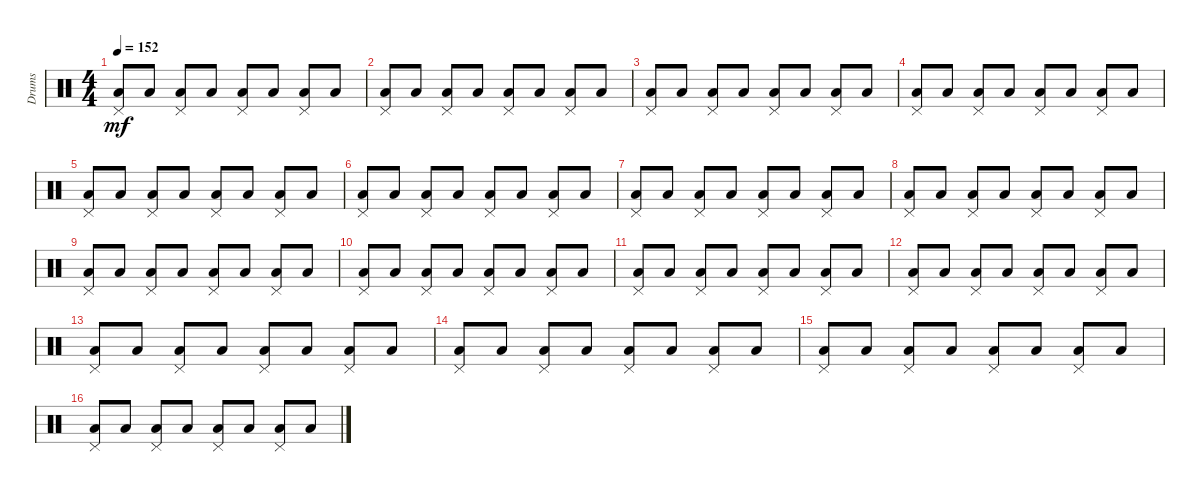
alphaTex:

\track ("Drums" "Drums") {instrument percussion}
\staff {score}
\articulation defaults
\ts (4 4)
\tempo 152
\clef neutral
\ks c
("Pedal Hi-Hat (hit)" "Low Floor Tom (hit)").8{dy mf} "Low Floor Tom (hit)".8 ("Pedal Hi-Hat (hit)" "Low Floor Tom (hit)").8 "Low Floor Tom (hit)".8 ("Pedal Hi-Hat (hit)" "Low Floor Tom (hit)").8 "Low Floor Tom (hit)".8 ("Pedal Hi-Hat (hit)" "Low Floor Tom (hit)").8 "Low Floor Tom (hit)".8 |
("Pedal Hi-Hat (hit)" "Low Floor Tom (hit)").8 "Low Floor Tom (hit)".8 ("Pedal Hi-Hat (hit)" "Low Floor Tom (hit)").8 "Low Floor Tom (hit)".8 ("Pedal Hi-Hat (hit)" "Low Floor Tom (hit)").8 "Low Floor Tom (hit)".8 ("Pedal Hi-Hat (hit)" "Low Floor Tom (hit)").8 "Low Floor Tom (hit)".8 |
("Low Floor Tom (hit)" "Pedal Hi-Hat (hit)").8 "Low Floor Tom (hit)".8 ("Low Floor Tom (hit)" "Pedal Hi-Hat (hit)").8 "Low Floor Tom (hit)".8 ("Low Floor Tom (hit)" "Pedal Hi-Hat (hit)").8 "Low Floor Tom (hit)".8 ("Low Floor Tom (hit)" "Pedal Hi-Hat (hit)").8 "Low Floor Tom (hit)".8 |
("Low Floor Tom (hit)" "Pedal Hi-Hat (hit)").8 "Low Floor Tom (hit)".8 ("Low Floor Tom (hit)" "Pedal Hi-Hat (hit)").8 "Low Floor Tom (hit)".8 ("Low Floor Tom (hit)" "Pedal Hi-Hat (hit)").8 "Low Floor Tom (hit)".8 ("Low Floor Tom (hit)" "Pedal Hi-Hat (hit)").8 "Low Floor Tom (hit)".8 |
("Low Floor Tom (hit)" "Pedal Hi-Hat (hit)").8 "Low Floor Tom (hit)".8 ("Low Floor Tom (hit)" "Pedal Hi-Hat (hit)").8 "Low Floor Tom (hit)".8 ("Low Floor Tom (hit)" "Pedal Hi-Hat (hit)").8 "Low Floor Tom (hit)".8 ("Low Floor Tom (hit)" "Pedal Hi-Hat (hit)").8 "Low Floor Tom (hit)".8 |
("Low Floor Tom (hit)" "Pedal Hi-Hat (hit)").8 "Low Floor Tom (hit)".8 ("Low Floor Tom (hit)" "Pedal Hi-Hat (hit)").8 "Low Floor Tom (hit)".8 ("Low Floor Tom (hit)" "Pedal Hi-Hat (hit)").8 "Low Floor Tom (hit)".8 ("Low Floor Tom (hit)" "Pedal Hi-Hat (hit)").8 "Low Floor Tom (hit)".8 |
("Pedal Hi-Hat (hit)" "Low Floor Tom (hit)").8 "Low Floor Tom (hit)".8 ("Pedal Hi-Hat (hit)" "Low Floor Tom (hit)").8 "Low Floor Tom (hit)".8 ("Pedal Hi-Hat (hit)" "Low Floor Tom (hit)").8 "Low Floor Tom (hit)".8 ("Pedal Hi-Hat (hit)" "Low Floor Tom (hit)").8 "Low Floor Tom (hit)".8 |
("Pedal Hi-Hat (hit)" "Low Floor Tom (hit)").8 "Low Floor Tom (hit)".8 ("Pedal Hi-Hat (hit)" "Low Floor Tom (hit)").8 "Low Floor Tom (hit)".8 ("Pedal Hi-Hat (hit)" "Low Floor Tom (hit)").8 "Low Floor Tom (hit)".8 ("Pedal Hi-Hat (hit)" "Low Floor Tom (hit)").8 "Low Floor Tom (hit)".8 |
("Low Floor Tom (hit)" "Pedal Hi-Hat (hit)").8 "Low Floor Tom (hit)".8 ("Low Floor Tom (hit)" "Pedal Hi-Hat (hit)").8 "Low Floor Tom (hit)".8 ("Low Floor Tom (hit)" "Pedal Hi-Hat (hit)").8 "Low Floor Tom (hit)".8 ("Low Floor Tom (hit)" "Pedal Hi-Hat (hit)").8 "Low Floor Tom (hit)".8 |
("Low Floor Tom (hit)" "Pedal Hi-Hat (hit)").8 "Low Floor Tom (hit)".8 ("Low Floor Tom (hit)" "Pedal Hi-Hat (hit)").8 "Low Floor Tom (hit)".8 ("Low Floor Tom (hit)" "Pedal Hi-Hat (hit)").8 "Low Floor Tom (hit)".8 ("Low Floor Tom (hit)" "Pedal Hi-Hat (hit)").8 "Low Floor Tom (hit)".8 |
("Pedal Hi-Hat (hit)" "Low Floor Tom (hit)").8 "Low Floor Tom (hit)".8 ("Pedal Hi-Hat (hit)" "Low Floor Tom (hit)").8 "Low Floor Tom (hit)".8 ("Pedal Hi-Hat (hit)" "Low Floor Tom (hit)").8 "Low Floor Tom (hit)".8 ("Pedal Hi-Hat (hit)" "Low Floor Tom (hit)").8 "Low Floor Tom (hit)".8 |
("Pedal Hi-Hat (hit)" "Low Floor Tom (hit)").8 "Low Floor Tom (hit)".8 ("Pedal Hi-Hat (hit)" "Low Floor Tom (hit)").8 "Low Floor Tom (hit)".8 ("Pedal Hi-Hat (hit)" "Low Floor Tom (hit)").8 "Low Floor Tom (hit)".8 ("Pedal Hi-Hat (hit)" "Low Floor Tom (hit)").8 "Low Floor Tom (hit)".8 |
("Pedal Hi-Hat (hit)" "Low Floor Tom (hit)").8 "Low Floor Tom (hit)".8 ("Pedal Hi-Hat (hit)" "Low Floor Tom (hit)").8 "Low Floor Tom (hit)".8 ("Pedal Hi-Hat (hit)" "Low Floor Tom (hit)").8 "Low Floor Tom (hit)".8 ("Pedal Hi-Hat (hit)" "Low Floor Tom (hit)").8 "Low Floor Tom (hit)".8 |
("Pedal Hi-Hat (hit)" "Low Floor Tom (hit)").8 "Low Floor Tom (hit)".8 ("Pedal Hi-Hat (hit)" "Low Floor Tom (hit)").8 "Low Floor Tom (hit)".8 ("Pedal Hi-Hat (hit)" "Low Floor Tom (hit)").8 "Low Floor Tom (hit)".8 ("Pedal Hi-Hat (hit)" "Low Floor Tom (hit)").8 "Low Floor Tom (hit)".8 |
("Low Floor Tom (hit)" "Pedal Hi-Hat (hit)").8 "Low Floor Tom (hit)".8 ("Low Floor Tom (hit)" "Pedal Hi-Hat (hit)").8 "Low Floor Tom (hit)".8 ("Low Floor Tom (hit)" "Pedal Hi-Hat (hit)").8 "Low Floor Tom (hit)".8 ("Low Floor Tom (hit)" "Pedal Hi-Hat (hit)").8 "Low Floor Tom (hit)".8 |
("Low Floor Tom (hit)" "Pedal Hi-Hat (hit)").8 "Low Floor Tom (hit)".8 ("Low Floor Tom (hit)" "Pedal Hi-Hat (hit)").8 "Low Floor Tom (hit)".8 ("Low Floor Tom (hit)" "Pedal Hi-Hat (hit)").8 "Low Floor Tom (hit)".8 ("Low Floor Tom (hit)" "Pedal Hi-Hat (hit)").8 "Low Floor Tom (hit)".8
